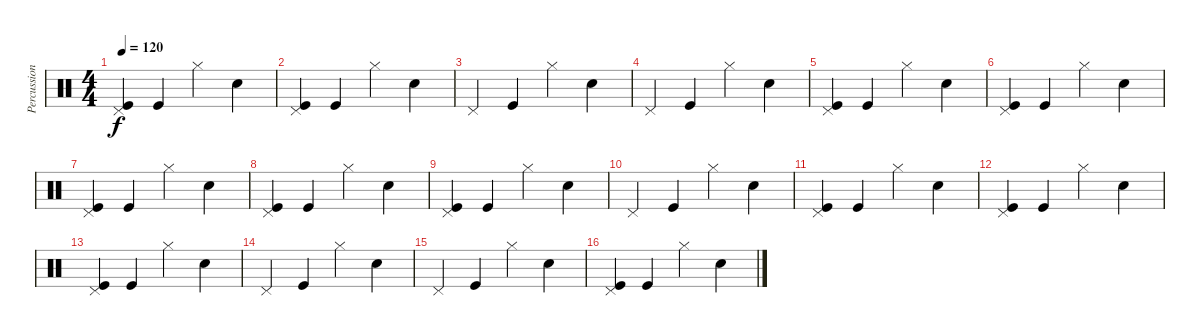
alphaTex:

\track ("Percussion" "Percussion") {instrument percussion}
\staff {score}
\articulation defaults
\ts (4 4)
\tempo 120
\clef neutral
\ks c
("Pedal Hi-Hat (hit)" "Kick (hit)").4{dy f} "Kick (hit)".4 "Hi-Hat (closed)".4 "Snare (hit) 2".4 |
("Pedal Hi-Hat (hit)" "Kick (hit)").4 "Kick (hit)".4 "Hi-Hat (closed)".4 "Snare (hit) 2".4 |
"Pedal Hi-Hat (hit)".4 "Kick (hit)".4 "Hi-Hat (closed)".4 "Snare (hit) 2".4 |
"Pedal Hi-Hat (hit)".4 "Kick (hit)".4 "Hi-Hat (closed)".4 "Snare (hit) 2".4 |
("Pedal Hi-Hat (hit)" "Kick (hit)").4 "Kick (hit)".4 "Hi-Hat (closed)".4 "Snare (hit) 2".4 |
("Pedal Hi-Hat (hit)" "Kick (hit)").4 "Kick (hit)".4 "Hi-Hat (closed)".4 "Snare (hit) 2".4 |
("Pedal Hi-Hat (hit)" "Kick (hit)").4 "Kick (hit)".4 "Hi-Hat (closed)".4 "Snare (hit) 2".4 |
("Pedal Hi-Hat (hit)" "Kick (hit)").4 "Kick (hit)".4 "Hi-Hat (closed)".4 "Snare (hit) 2".4 |
("Pedal Hi-Hat (hit)" "Kick (hit)").4 "Kick (hit)".4 "Hi-Hat (closed)".4 "Snare (hit) 2".4 |
"Pedal Hi-Hat (hit)".4 "Kick (hit)".4 "Hi-Hat (closed)".4 "Snare (hit) 2".4 |
("Pedal Hi-Hat (hit)" "Kick (hit)").4 "Kick (hit)".4 "Hi-Hat (closed)".4 "Snare (hit) 2".4 |
("Pedal Hi-Hat (hit)" "Kick (hit)").4 "Kick (hit)".4 "Hi-Hat (closed)".4 "Snare (hit) 2".4 |
("Pedal Hi-Hat (hit)" "Kick (hit)").4 "Kick (hit)".4 "Hi-Hat (closed)".4 "Snare (hit) 2".4 |
"Pedal Hi-Hat (hit)".4 "Kick (hit)".4 "Hi-Hat (closed)".4 "Snare (hit) 2".4 |
"Pedal Hi-Hat (hit)".4 "Kick (hit)".4 "Hi-Hat (closed)".4 "Snare (hit) 2".4 |
("Pedal Hi-Hat (hit)" "Kick (hit)").4 "Kick (hit)".4 "Hi-Hat (closed)".4 "Snare (hit) 2".4
